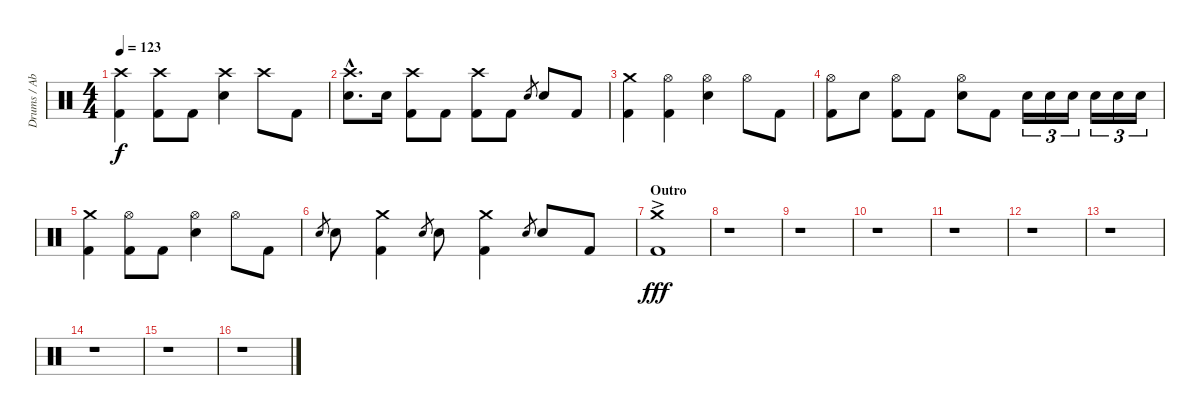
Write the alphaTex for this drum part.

\track ("Drums / Abe Cunningham" "Drums / Ab") {instrument percussion}
\staff {score}
\articulation defaults
\ts (4 4)
\tempo 123
\clef neutral
\ks c
("Crash high (hit)" "Kick (hit) 2").4{dy f} ("Crash high (hit)" "Kick (hit) 2").8 "Kick (hit) 2".8 ("Crash high (hit)" "Electric Snare (hit)").4 "Crash high (hit)".8 "Kick (hit) 2".8 |
("Crash high (hit)"{hac} "Electric Snare (hit)"{hac}).8{d} "Electric Snare (hit)".16 ("Crash high (hit)" "Kick (hit) 2").8 "Kick (hit) 2".8 ("Crash high (hit)" "Kick (hit) 2").8 "Kick (hit) 2".8 "Electric Snare (hit)".8{gr} "Electric Snare (hit)".8 "Kick (hit) 2".8 |
("Crash medium (hit)" "Kick (hit) 2").4 ("Hi-Hat (open)" "Kick (hit) 2").4 ("Hi-Hat (open)" "Electric Snare (hit)").4 "Hi-Hat (open)".8 "Kick (hit) 2".8 |
("Hi-Hat (open)" "Kick (hit) 2").8 "Electric Snare (hit)".8 ("Hi-Hat (open)" "Kick (hit) 2").8 "Kick (hit) 2".8 ("Hi-Hat (open)" "Electric Snare (hit)").8 "Kick (hit) 2".8 "Electric Snare (hit)".16{tu (3 2)} "Electric Snare (hit)".16{tu (3 2)} "Electric Snare (hit)".16{tu (3 2)} "Electric Snare (hit)".16{tu (3 2)} "Electric Snare (hit)".16{tu (3 2)} "Electric Snare (hit)".16{tu (3 2)} |
("Crash medium (hit)" "Kick (hit) 2").4 ("Hi-Hat (open)" "Kick (hit) 2").8 "Kick (hit) 2".8 ("Hi-Hat (open)" "Electric Snare (hit)").4 "Hi-Hat (open)".8 "Kick (hit) 2".8 |
"Electric Snare (hit)".8{gr} "Electric Snare (hit)".8 ("Crash medium (hit)" "Kick (hit) 2").4 "Electric Snare (hit)".8{gr} "Electric Snare (hit)".8 ("Crash medium (hit)" "Kick (hit) 2").4 "Electric Snare (hit)".8{gr} "Electric Snare (hit)".8 "Kick (hit) 2".8 |
\section ("" "Outro")
("Crash medium (hit)"{ac} "Kick (hit) 2"{ac}).1{dy fff} |
r.1 |
r.1 |
r.1 |
r.1 |
r.1 |
r.1 |
r.1 |
r.1 |
r.1
